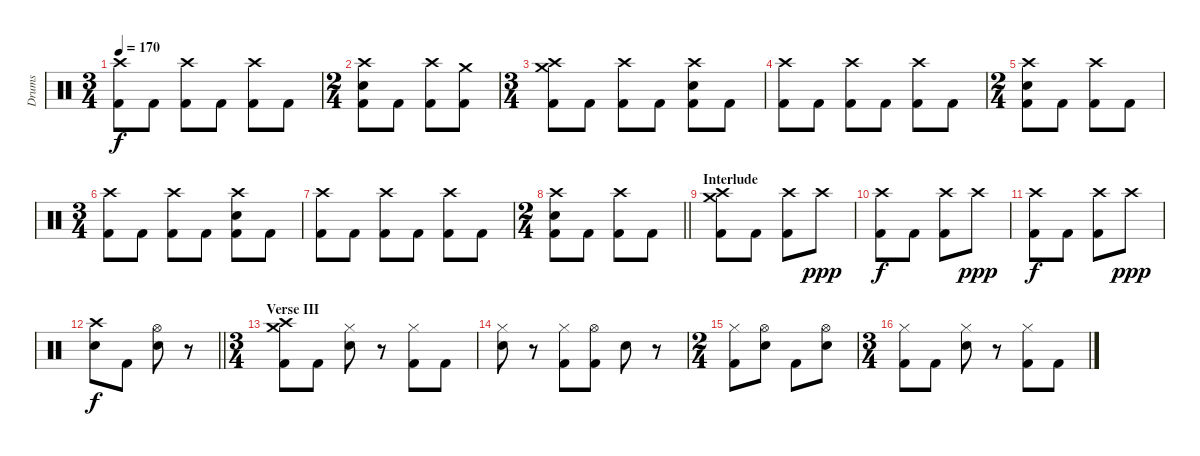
\track ("Drums" "Drums") {instrument percussion}
\staff {score}
\articulation defaults
\ts (3 4)
\tempo 170
\clef neutral
\ks c
("Crash high (hit)" "Kick (hit) 2").8{dy f} "Kick (hit) 2".8 ("Crash high (hit)" "Kick (hit) 2").8 "Kick (hit) 2".8 ("Crash high (hit)" "Kick (hit) 2").8 "Kick (hit) 2".8 |
\ts (2 4)
("Crash high (hit)" "Electric Snare (hit)" "Kick (hit) 2").8 "Kick (hit) 2".8 ("Crash high (hit)" "Kick (hit) 2").8 ("Crash medium (hit)" "Kick (hit) 2").8 |
\ts (3 4)
("Crash medium (hit)" "Crash high (hit)" "Kick (hit) 2").8 "Kick (hit) 2".8 ("Crash high (hit)" "Kick (hit) 2").8 "Kick (hit) 2".8 ("Crash high (hit)" "Electric Snare (hit)" "Kick (hit) 2").8 "Kick (hit) 2".8 |
("Crash high (hit)" "Kick (hit) 2").8 "Kick (hit) 2".8 ("Crash high (hit)" "Kick (hit) 2").8 "Kick (hit) 2".8 ("Crash high (hit)" "Kick (hit) 2").8 "Kick (hit) 2".8 |
\ts (2 4)
("Crash high (hit)" "Electric Snare (hit)" "Kick (hit) 2").8 "Kick (hit) 2".8 ("Crash high (hit)" "Kick (hit) 2").8 "Kick (hit) 2".8 |
\ts (3 4)
("Crash high (hit)" "Kick (hit) 2").8 "Kick (hit) 2".8 ("Crash high (hit)" "Kick (hit) 2").8 "Kick (hit) 2".8 ("Crash high (hit)" "Electric Snare (hit)" "Kick (hit) 2").8 "Kick (hit) 2".8 |
("Crash high (hit)" "Kick (hit) 2").8 "Kick (hit) 2".8 ("Crash high (hit)" "Kick (hit) 2").8 "Kick (hit) 2".8 ("Crash high (hit)" "Kick (hit) 2").8 "Kick (hit) 2".8 |
\ts (2 4)
\barLineRight lightlight
("Crash high (hit)" "Electric Snare (hit)" "Kick (hit) 2").8 "Kick (hit) 2".8 ("Crash high (hit)" "Kick (hit) 2").8 "Kick (hit) 2".8 |
\section ("" "Interlude")
("Crash medium (hit)" "Crash high (hit)" "Kick (hit) 2").8 "Kick (hit) 2".8 ("Crash high (hit)" "Kick (hit) 2").8 "Crash high (hit)".8{dy ppp} |
("Crash high (hit)" "Kick (hit) 2").8{dy f} "Kick (hit) 2".8 ("Crash high (hit)" "Kick (hit) 2").8 "Crash high (hit)".8{dy ppp} |
("Crash high (hit)" "Kick (hit) 2").8{dy f} "Kick (hit) 2".8 ("Crash high (hit)" "Kick (hit) 2").8 "Crash high (hit)".8{dy ppp} |
\barLineRight lightlight
("Crash high (hit)" "Electric Snare (hit)").8{dy f} "Kick (hit) 2".8 ("Hi-Hat (open)" "Electric Snare (hit)").8 r.8 |
\ts (3 4)
\section ("" "Verse III")
("Crash medium (hit)" "Crash high (hit)" "Kick (hit) 2").8 "Kick (hit) 2".8 ("Hi-Hat (closed)" "Electric Snare (hit)").8 r.8 ("Hi-Hat (closed)" "Kick (hit) 2").8 "Kick (hit) 2".8 |
("Hi-Hat (closed)" "Electric Snare (hit)").8 r.8 ("Hi-Hat (closed)" "Kick (hit) 2").8 ("Hi-Hat (open)" "Kick (hit) 2").8 "Electric Snare (hit)".8 r.8 |
\ts (2 4)
("Hi-Hat (closed)" "Kick (hit) 2").8 ("Hi-Hat (open)" "Electric Snare (hit)").8 "Kick (hit) 2".8 ("Hi-Hat (open)" "Electric Snare (hit)").8 |
\ts (3 4)
("Hi-Hat (closed)" "Kick (hit) 2").8 "Kick (hit) 2".8 ("Hi-Hat (closed)" "Electric Snare (hit)").8 r.8 ("Hi-Hat (closed)" "Kick (hit) 2").8 "Kick (hit) 2".8
